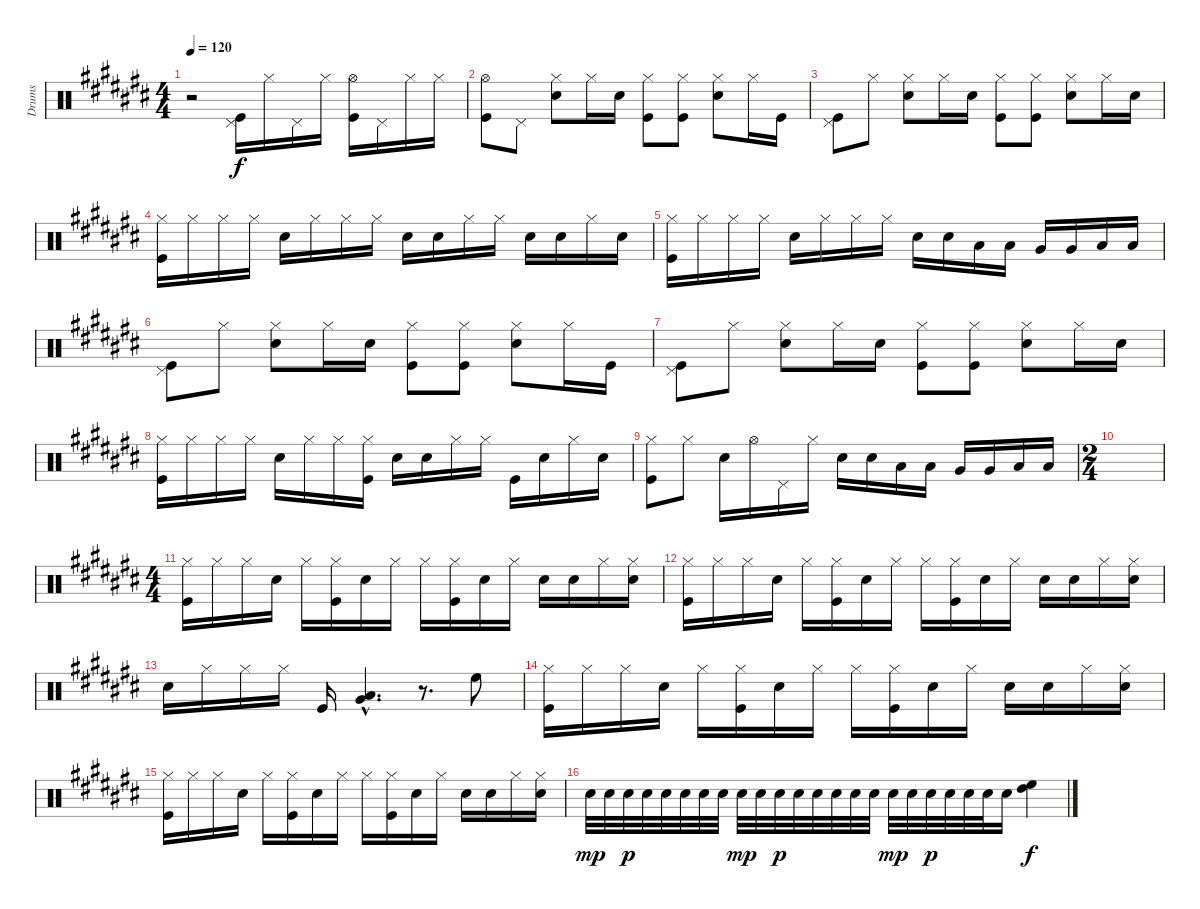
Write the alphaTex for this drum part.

\track ("Drums" "Drums") {instrument percussion}
\staff {score}
\articulation defaults
\ts (4 4)
\tempo 120
\clef neutral
\ks c#
r.2{dy f} ("Pedal Hi-Hat (hit)" "Kick (hit)").16 "Hi-Hat (closed)".16 "Pedal Hi-Hat (hit)".16 "Hi-Hat (closed)".16 ("Hi-Hat (open)" "Kick (hit)").16 "Pedal Hi-Hat (hit)".16 "Hi-Hat (closed)".16 "Hi-Hat (closed)".16 |
\section ("" "")
("Hi-Hat (open)" "Kick (hit)").8 "Pedal Hi-Hat (hit)".8 ("Hi-Hat (closed)" "Electric Snare (hit)").8 "Hi-Hat (closed)".16 "Electric Snare (hit)".16 ("Hi-Hat (closed)" "Kick (hit)").8 ("Hi-Hat (closed)" "Kick (hit)").8 ("Hi-Hat (closed)" "Electric Snare (hit)").8 "Hi-Hat (closed)".16 "Kick (hit)".16 |
("Pedal Hi-Hat (hit)" "Kick (hit)").8 "Hi-Hat (closed)".8 ("Hi-Hat (closed)" "Electric Snare (hit)").8 "Hi-Hat (closed)".16 "Electric Snare (hit)".16 ("Hi-Hat (closed)" "Kick (hit)").8 ("Hi-Hat (closed)" "Kick (hit)").8 ("Hi-Hat (closed)" "Electric Snare (hit)").8 "Hi-Hat (closed)".16 "Electric Snare (hit)".16 |
("Hi-Hat (closed)" "Kick (hit)").16 "Hi-Hat (closed)".16 "Hi-Hat (closed)".16 "Hi-Hat (closed)".16 "Electric Snare (hit)".16 "Hi-Hat (closed)".16 "Hi-Hat (closed)".16 "Hi-Hat (closed)".16 "Electric Snare (hit)".16 "Electric Snare (hit)".16 "Hi-Hat (closed)".16 "Hi-Hat (closed)".16 "Electric Snare (hit)".16 "Electric Snare (hit)".16 "Hi-Hat (closed)".16 "Electric Snare (hit)".16 |
("Hi-Hat (closed)" "Kick (hit)").16 "Hi-Hat (closed)".16 "Hi-Hat (closed)".16 "Hi-Hat (closed)".16 "Electric Snare (hit)".16 "Hi-Hat (closed)".16 "Hi-Hat (closed)".16 "Hi-Hat (closed)".16 "Electric Snare (hit)".16 "Electric Snare (hit)".16 "Low Tom (hit)".16 "Low Tom (hit)".16 "Very Low Tom (hit)".16 "Very Low Tom (hit)".16 "Low Floor Tom (hit)".16 "Low Floor Tom (hit)".16 |
("Pedal Hi-Hat (hit)" "Kick (hit)").8 "Hi-Hat (closed)".8 ("Hi-Hat (closed)" "Electric Snare (hit)").8 "Hi-Hat (closed)".16 "Electric Snare (hit)".16 ("Hi-Hat (closed)" "Kick (hit)").8 ("Hi-Hat (closed)" "Kick (hit)").8 ("Hi-Hat (closed)" "Electric Snare (hit)").8 "Hi-Hat (closed)".16 "Kick (hit)".16 |
("Pedal Hi-Hat (hit)" "Kick (hit)").8 "Hi-Hat (closed)".8 ("Hi-Hat (closed)" "Electric Snare (hit)").8 "Hi-Hat (closed)".16 "Electric Snare (hit)".16 ("Hi-Hat (closed)" "Kick (hit)").8 ("Hi-Hat (closed)" "Kick (hit)").8 ("Hi-Hat (closed)" "Electric Snare (hit)").8 "Hi-Hat (closed)".16 "Electric Snare (hit)".16 |
("Hi-Hat (closed)" "Kick (hit)").16 "Hi-Hat (closed)".16 "Hi-Hat (closed)".16 "Hi-Hat (closed)".16 "Electric Snare (hit)".16 "Hi-Hat (closed)".16 "Hi-Hat (closed)".16 ("Hi-Hat (closed)" "Kick (hit)").16 "Electric Snare (hit)".16 "Electric Snare (hit)".16 "Hi-Hat (closed)".16 "Hi-Hat (closed)".16 "Kick (hit)".16 "Electric Snare (hit)".16 "Hi-Hat (closed)".16 "Electric Snare (hit)".16 |
("Hi-Hat (closed)" "Kick (hit)").8 "Hi-Hat (closed)".8 "Electric Snare (hit)".16 "Hi-Hat (open)".16 "Pedal Hi-Hat (hit)".16 "Hi-Hat (closed)".16 "Electric Snare (hit)".16 "Electric Snare (hit)".16 "Low Tom (hit)".16 "Low Tom (hit)".16 "Very Low Tom (hit)".16 "Very Low Tom (hit)".16 "Low Floor Tom (hit)".16 "Low Floor Tom (hit)".16 |
\ts (2 4)
|
\ts (4 4)
\section ("" "")
("Hi-Hat (closed)" "Kick (hit)").16 "Hi-Hat (closed)".16 "Hi-Hat (closed)".16 "Electric Snare (hit)".16 "Hi-Hat (closed)".16 ("Hi-Hat (closed)" "Kick (hit)").16 "Electric Snare (hit)".16 "Hi-Hat (closed)".16 "Hi-Hat (closed)".16 ("Hi-Hat (closed)" "Kick (hit)").16 "Electric Snare (hit)".16 "Hi-Hat (closed)".16 "Electric Snare (hit)".16 "Electric Snare (hit)".16 "Hi-Hat (closed)".16 ("Hi-Hat (closed)" "Electric Snare (hit)").16 |
("Hi-Hat (closed)" "Kick (hit)").16 "Hi-Hat (closed)".16 "Hi-Hat (closed)".16 "Electric Snare (hit)".16 "Hi-Hat (closed)".16 ("Hi-Hat (closed)" "Kick (hit)").16 "Electric Snare (hit)".16 "Hi-Hat (closed)".16 "Hi-Hat (closed)".16 ("Hi-Hat (closed)" "Kick (hit)").16 "Electric Snare (hit)".16 "Hi-Hat (closed)".16 "Electric Snare (hit)".16 "Electric Snare (hit)".16 "Hi-Hat (closed)".16 ("Hi-Hat (closed)" "Electric Snare (hit)").16 |
"Electric Snare (hit)".16 "Hi-Hat (closed)".16 "Hi-Hat (closed)".16 "Hi-Hat (closed)".16 "Kick (hit)".16 ("Very Low Tom (hit)"{hac} "Low Tom (hit)"{hac}).4{d} r.8{d} "High Floor Tom (hit)".8 |
("Hi-Hat (closed)" "Kick (hit)").16 "Hi-Hat (closed)".16 "Hi-Hat (closed)".16 "Electric Snare (hit)".16 "Hi-Hat (closed)".16 ("Hi-Hat (closed)" "Kick (hit)").16 "Electric Snare (hit)".16 "Hi-Hat (closed)".16 "Hi-Hat (closed)".16 ("Hi-Hat (closed)" "Kick (hit)").16 "Electric Snare (hit)".16 "Hi-Hat (closed)".16 "Electric Snare (hit)".16 "Electric Snare (hit)".16 "Hi-Hat (closed)".16 ("Hi-Hat (closed)" "Electric Snare (hit)").16 |
("Hi-Hat (closed)" "Kick (hit)").16 "Hi-Hat (closed)".16 "Hi-Hat (closed)".16 "Electric Snare (hit)".16 "Hi-Hat (closed)".16 ("Hi-Hat (closed)" "Kick (hit)").16 "Electric Snare (hit)".16 "Hi-Hat (closed)".16 "Hi-Hat (closed)".16 ("Hi-Hat (closed)" "Kick (hit)").16 "Electric Snare (hit)".16 "Hi-Hat (closed)".16 "Electric Snare (hit)".16 "Electric Snare (hit)".16 "Hi-Hat (closed)".16 ("Hi-Hat (closed)" "Electric Snare (hit)").16 |
"Electric Snare (hit)".32{dy mp} "Electric Snare (hit)".32 "Electric Snare (hit)".32{dy p} "Electric Snare (hit)".32 "Electric Snare (hit)".32 "Electric Snare (hit)".32 "Electric Snare (hit)".32 "Electric Snare (hit)".32 "Electric Snare (hit)".32{dy mp} "Electric Snare (hit)".32 "Electric Snare (hit)".32{dy p} "Electric Snare (hit)".32 "Electric Snare (hit)".32 "Electric Snare (hit)".32 "Electric Snare (hit)".32 "Electric Snare (hit)".32 "Electric Snare (hit)".32{dy mp} "Electric Snare (hit)".32 "Electric Snare (hit)".32{dy p} "Electric Snare (hit)".32 "Electric Snare (hit)".32 "Electric Snare (hit)".32 "Electric Snare (hit)".16 ("High Floor Tom (hit)" "High Tom (hit)").4{dy f}
